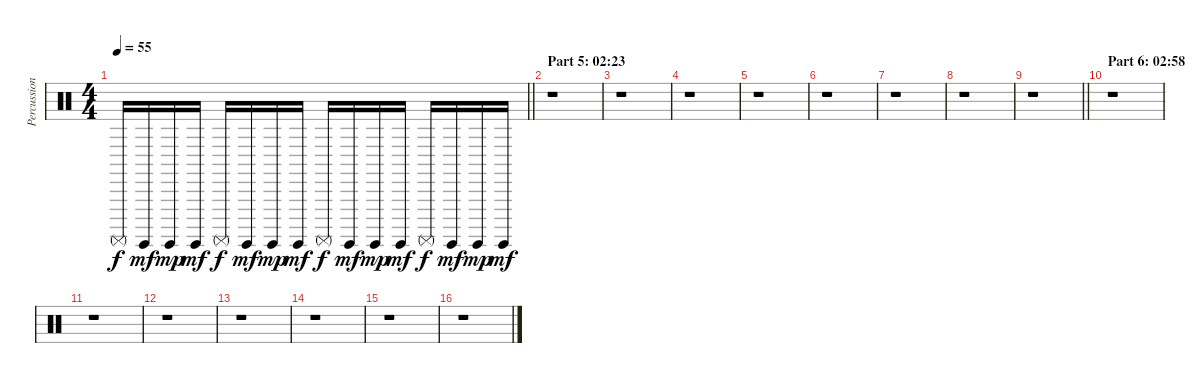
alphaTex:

\track ("Percussion" "Percussion") {instrument percussion}
\staff {score}
\articulation defaults
\ts (4 4)
\tempo 55
\clef neutral
\barLineRight lightlight
\ks c "Surdo (mute)".16{dy f} "Surdo (hit)".16{dy mf} "Surdo (hit)".16{dy mp} "Surdo (hit)".16{dy mf} "Surdo (mute)".16{dy f} "Surdo (hit)".16{dy mf} "Surdo (hit)".16{dy mp} "Surdo (hit)".16{dy mf} "Surdo (mute)".16{dy f} "Surdo (hit)".16{dy mf} "Surdo (hit)".16{dy mp} "Surdo (hit)".16{dy mf} "Surdo (mute)".16{dy f} "Surdo (hit)".16{dy mf} "Surdo (hit)".16{dy mp} "Surdo (hit)".16{dy mf}
|
\section ("" "Part 5: 02:23")
r.1 |
r.1 |
r.1 |
r.1 |
r.1 |
r.1 |
r.1 |
\barLineRight lightlight
r.1 |
\section ("" "Part 6: 02:58")
r.1 |
r.1 |
r.1 |
r.1 |
r.1 |
r.1 |
r.1
